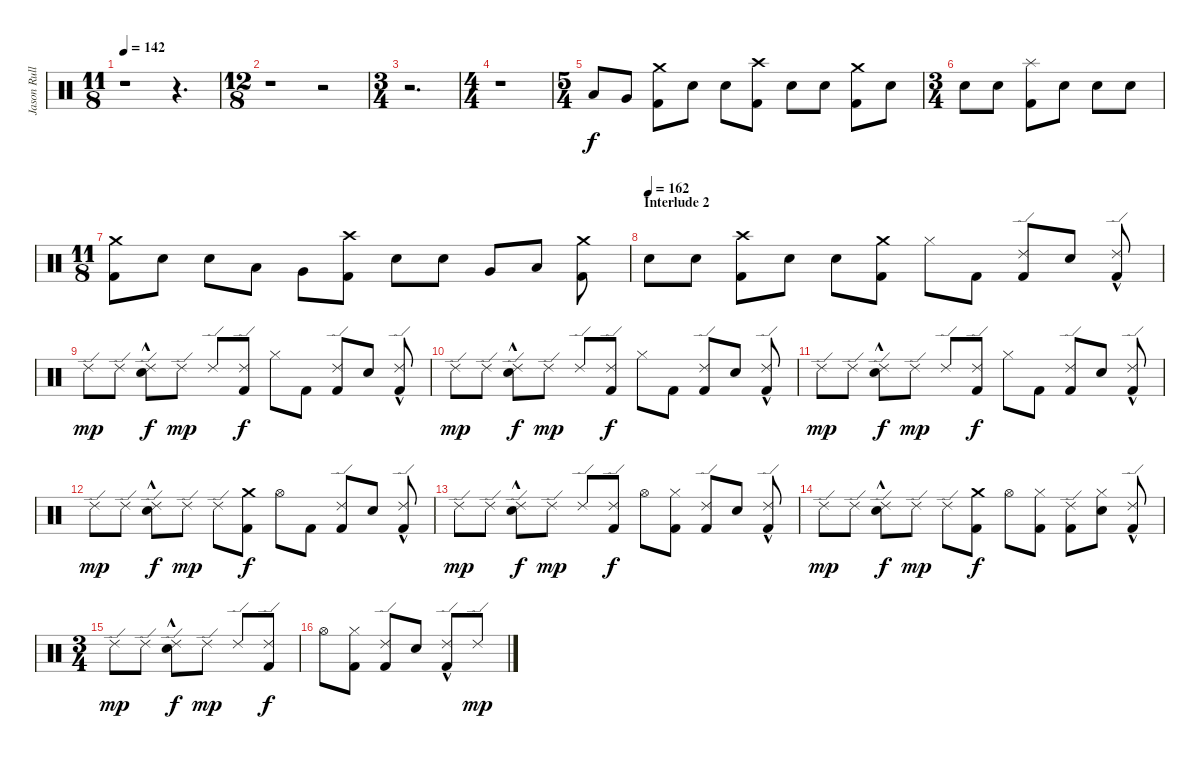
\track ("Jason Rullo" "Jason Rull") {instrument percussion}
\staff {score}
\articulation defaults
\ts (11 8)
\tempo 142
\clef neutral
\ks c
r.1{dy f} r.4{d} |
\ts (12 8)
r.1 r.2 |
\ts (3 4)
r.2{d} |
\ts (4 4)
r.1 |
\ts (5 4)
"Low Tom (hit)".8 "Very Low Tom (hit)".8 ("Crash medium (hit)" "Kick (hit) 2").8 "Electric Snare (hit)".8 "Electric Snare (hit)".8 ("Crash high (hit)" "Kick (hit) 2").8 "Electric Snare (hit)".8 "Electric Snare (hit)".8 ("Crash medium (hit)" "Kick (hit) 2").8 "Electric Snare (hit)".8 |
\ts (3 4)
"Electric Snare (hit)".8 "Electric Snare (hit)".8 ("Splash (hit)" "Kick (hit) 2").8 "Electric Snare (hit)".8 "Electric Snare (hit)".8 "Electric Snare (hit)".8 |
\ts (11 8)
("Crash medium (hit)" "Kick (hit) 2").8 "Electric Snare (hit)".8 "Electric Snare (hit)".8 "Low Tom (hit)".8 "Very Low Tom (hit)".8 ("Crash high (hit)" "Kick (hit) 2").8 "Electric Snare (hit)".8 "Electric Snare (hit)".8 "Very Low Tom (hit)".8 "Low Floor Tom (hit)".8 ("Crash medium (hit)" "Kick (hit) 2").8 |
\section ("" "Interlude 2")
\tempo (162)
"Electric Snare (hit)".8 "Electric Snare (hit)".8 ("Crash high (hit)" "Kick (hit) 2").8 "Electric Snare (hit)".8 "Electric Snare (hit)".8 ("Crash medium (hit)" "Kick (hit) 2").8 "Hi-Hat (closed)".8 "Kick (hit) 2".8 ("Ride (edge) 2" "Kick (hit) 2").8 "Electric Snare (hit)".8 ("Ride (edge) 2" "Kick (hit) 2"{hac}).8 |
"Ride (edge) 2".8{dy mp} "Ride (edge) 2".8 ("Ride (edge) 2" "Electric Snare (hit)"{hac}).8{dy f} "Ride (edge) 2".8{dy mp} "Ride (edge) 2".8 ("Ride (edge) 2" "Kick (hit) 2").8{dy f} "Hi-Hat (closed)".8 "Kick (hit) 2".8 ("Ride (edge) 2" "Kick (hit) 2").8 "Electric Snare (hit)".8 ("Ride (edge) 2" "Kick (hit) 2"{hac}).8 |
"Ride (edge) 2".8{dy mp} "Ride (edge) 2".8 ("Ride (edge) 2" "Electric Snare (hit)"{hac}).8{dy f} "Ride (edge) 2".8{dy mp} "Ride (edge) 2".8 ("Ride (edge) 2" "Kick (hit) 2").8{dy f} "Hi-Hat (closed)".8 "Kick (hit) 2".8 ("Ride (edge) 2" "Kick (hit) 2").8 "Electric Snare (hit)".8 ("Ride (edge) 2" "Kick (hit) 2"{hac}).8 |
"Ride (edge) 2".8{dy mp} "Ride (edge) 2".8 ("Ride (edge) 2" "Electric Snare (hit)"{hac}).8{dy f} "Ride (edge) 2".8{dy mp} "Ride (edge) 2".8 ("Ride (edge) 2" "Kick (hit) 2").8{dy f} "Hi-Hat (closed)".8 "Kick (hit) 2".8 ("Ride (edge) 2" "Kick (hit) 2").8 "Electric Snare (hit)".8 ("Ride (edge) 2" "Kick (hit) 2"{hac}).8 |
"Ride (edge) 2".8{dy mp} "Ride (edge) 2".8 ("Ride (edge) 2" "Electric Snare (hit)"{hac}).8{dy f} "Ride (edge) 2".8{dy mp} "Ride (edge) 2".8 ("Crash medium (hit)" "Kick (hit) 2").8{dy f} "Hi-Hat (open)".8 "Kick (hit) 2".8 ("Ride (edge) 2" "Kick (hit) 2").8 "Electric Snare (hit)".8 ("Ride (edge) 2" "Kick (hit) 2"{hac}).8 |
"Ride (edge) 2".8{dy mp} "Ride (edge) 2".8 ("Ride (edge) 2" "Electric Snare (hit)"{hac}).8{dy f} "Ride (edge) 2".8{dy mp} "Ride (edge) 2".8 ("Ride (edge) 2" "Kick (hit) 2").8{dy f} "Hi-Hat (open)".8 ("Hi-Hat (closed)" "Kick (hit) 2").8 ("Ride (edge) 2" "Kick (hit) 2").8 "Electric Snare (hit)".8 ("Ride (edge) 2" "Kick (hit) 2"{hac}).8 |
"Ride (edge) 2".8{dy mp} "Ride (edge) 2".8 ("Ride (edge) 2" "Electric Snare (hit)"{hac}).8{dy f} "Ride (edge) 2".8{dy mp} "Ride (edge) 2".8 ("Crash medium (hit)" "Kick (hit) 2").8{dy f} "Hi-Hat (open)".8 ("Hi-Hat (closed)" "Kick (hit) 2").8 ("Ride (edge) 2" "Kick (hit) 2").8 ("Hi-Hat (closed)" "Electric Snare (hit)").8 ("Ride (edge) 2" "Kick (hit) 2"{hac}).8 |
\ts (3 4)
"Ride (edge) 2".8{dy mp} "Ride (edge) 2".8 ("Ride (edge) 2" "Electric Snare (hit)"{hac}).8{dy f} "Ride (edge) 2".8{dy mp} "Ride (edge) 2".8 ("Ride (edge) 2" "Kick (hit) 2").8{dy f} |
"Hi-Hat (open)".8 ("Hi-Hat (closed)" "Kick (hit) 2").8 ("Ride (edge) 2" "Kick (hit) 2").8 "Electric Snare (hit)".8 ("Ride (edge) 2" "Kick (hit) 2"{hac}).8 "Ride (edge) 2".8{dy mp}
